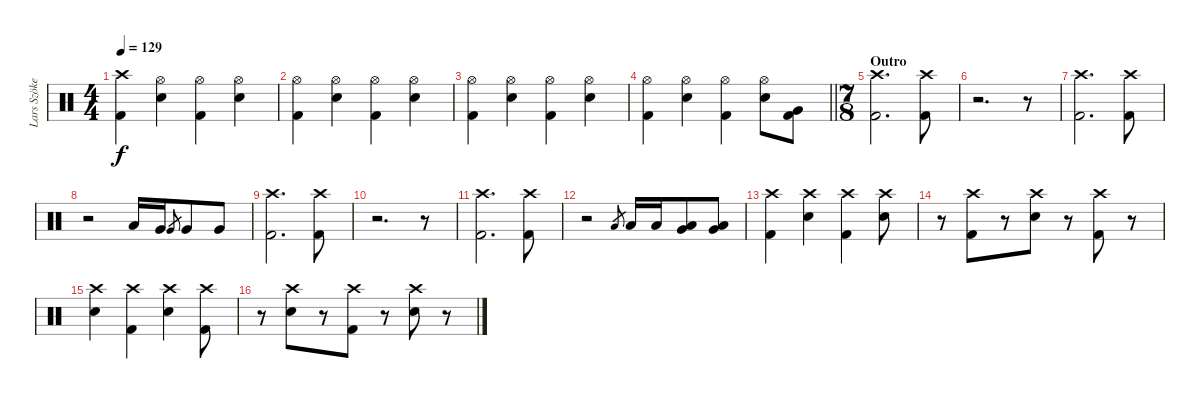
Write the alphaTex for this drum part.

\track ("Lars Szöke" "Lars Szöke") {instrument percussion}
\staff {score}
\articulation defaults
\ts (4 4)
\tempo 129
\clef neutral
\ks c
("Crash high (hit)" "Kick (hit) 2").4{dy f} ("Hi-Hat (open)" "Snare (hit) 2").4 ("Hi-Hat (open)" "Kick (hit) 2").4 ("Hi-Hat (open)" "Snare (hit) 2").4 |
("Hi-Hat (open)" "Kick (hit) 2").4 ("Hi-Hat (open)" "Snare (hit) 2").4 ("Hi-Hat (open)" "Kick (hit) 2").4 ("Hi-Hat (open)" "Snare (hit) 2").4 |
("Hi-Hat (open)" "Kick (hit) 2").4 ("Hi-Hat (open)" "Snare (hit) 2").4 ("Hi-Hat (open)" "Kick (hit) 2").4 ("Hi-Hat (open)" "Snare (hit) 2").4 |
\barLineRight lightlight
("Hi-Hat (open)" "Kick (hit) 2").4 ("Hi-Hat (open)" "Snare (hit) 2").4 ("Hi-Hat (open)" "Kick (hit) 2").4 ("Hi-Hat (open)" "Snare (hit) 2").8 ("Very Low Tom (hit)" "Kick (hit) 2").8 |
\ts (7 8)
\section ("" "Outro")
("Crash high (hit)" "Kick (hit) 2").2{d} ("Crash high (hit)" "Kick (hit) 2").8 |
r.2{d} r.8 |
("Crash high (hit)" "Kick (hit) 2").2{d} ("Crash high (hit)" "Kick (hit) 2").8 |
r.2 "Low Tom (hit)".16 "Very Low Tom (hit)".16 "Very Low Tom (hit)".8{gr} "Very Low Tom (hit)".8 "Very Low Tom (hit)".8 |
("Crash high (hit)" "Kick (hit) 2").2{d} ("Crash high (hit)" "Kick (hit) 2").8 |
r.2{d} r.8 |
("Crash high (hit)" "Kick (hit) 2").2{d} ("Crash high (hit)" "Kick (hit) 2").8 |
r.2 "Low Tom (hit)".8{gr} "Low Tom (hit)".16 "Low Tom (hit)".16 ("Very Low Tom (hit)" "Low Floor Tom (hit)").8 ("Very Low Tom (hit)" "Low Floor Tom (hit)").8 |
("Crash high (hit)" "Kick (hit) 2").4 ("Crash high (hit)" "Snare (hit) 2").4 ("Crash high (hit)" "Kick (hit) 2").4 ("Crash high (hit)" "Snare (hit) 2").8 |
r.8 ("Crash high (hit)" "Kick (hit) 2").8 r.8 ("Crash high (hit)" "Snare (hit) 2").8 r.8 ("Crash high (hit)" "Kick (hit) 2").8 r.8 |
("Crash high (hit)" "Snare (hit) 2").4 ("Crash high (hit)" "Kick (hit) 2").4 ("Crash high (hit)" "Snare (hit) 2").4 ("Crash high (hit)" "Kick (hit) 2").8 |
r.8 ("Crash high (hit)" "Snare (hit) 2").8 r.8 ("Crash high (hit)" "Kick (hit) 2").8 r.8 ("Crash high (hit)" "Snare (hit) 2").8 r.8
